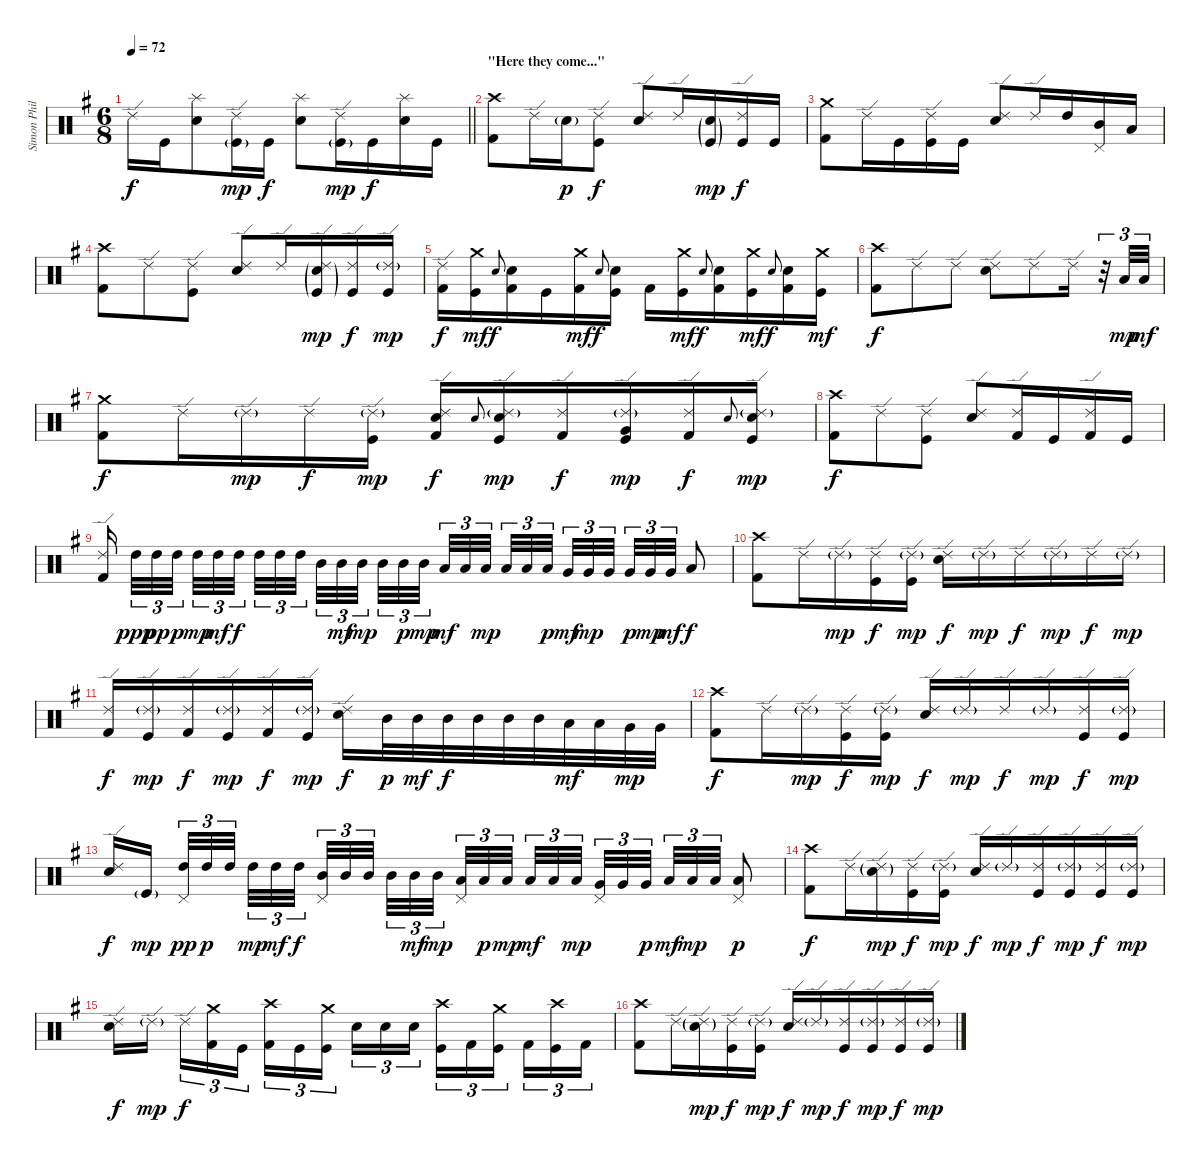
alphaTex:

\track ("Simon Phillips" "Simon Phil") {instrument percussion}
\staff {score}
\articulation defaults
\ts (6 8)
\tempo 72
\clef neutral
\barLineRight lightlight
\ks eminor "Ride (edge) 2".16{dy f} "Kick (hit)".16
("Splash (hit)" "Electric Snare (hit)").8 ("Ride (edge) 2" "Kick (hit)"{g}).16{dy mp} "Kick (hit)".16{dy f} ("Splash (hit)" "Electric Snare (hit)").8 ("Ride (edge) 2" "Kick (hit)"{g}).16{dy mp} "Kick (hit)".16{dy f} ("Splash (hit)" "Electric Snare (hit)").16 "Kick (hit)".16 |
\section ("" "\"Here they come...\"")
("Crash high (hit)" "Kick (hit) 2").8 "Ride (edge) 2".16 "Electric Snare (hit)"{g}.16{dy p} ("Ride (edge) 2" "Kick (hit)").8{dy f} ("Ride (edge) 2" "Electric Snare (hit)").8 "Ride (edge) 2".16 ("Electric Snare (hit)"{g} "Kick (hit)"{g}).16{dy mp} ("Ride (edge) 2" "Kick (hit)").16{dy f} "Kick (hit)".16 |
("Crash medium (hit)" "Kick (hit) 2").8 "Ride (edge) 2".16 "Kick (hit)".16 ("Ride (edge) 2" "Kick (hit)").16 "Kick (hit)".16 ("Ride (edge) 2" "Electric Snare (hit)").8 "Ride (edge) 2".16 "High Tom (hit)".16 ("Pedal Hi-Hat (hit)" "Mid Tom (hit)").16 "Low Tom (hit)".16 |
("Crash high (hit)" "Kick (hit) 2").8 "Ride (edge) 2".8 ("Ride (edge) 2" "Kick (hit)").8 ("Ride (edge) 2" "Electric Snare (hit)").8 "Ride (edge) 2".16 ("Ride (edge) 2"{g} "Electric Snare (hit)"{g} "Kick (hit)"{g}).16{dy mp} ("Ride (edge) 2" "Kick (hit)").16{dy f} ("Ride (edge) 2"{g} "Kick (hit)").16{dy mp} |
("Ride (edge) 2" "Kick (hit) 2").16{dy f} ("Crash medium (hit)" "Kick (hit)").16{dy mf} "Electric Snare (hit)".8{gr onbeat dy f} ("Electric Snare (hit)" "Kick (hit) 2").16 "Kick (hit)".16 ("Crash medium (hit)" "Kick (hit) 2").16{dy mf} "Electric Snare (hit)".8{gr onbeat dy f} ("Electric Snare (hit)" "Kick (hit)").16 "Kick (hit) 2".16 ("Crash medium (hit)" "Kick (hit)").16{dy mf} "Electric Snare (hit)".8{gr onbeat dy f} ("Electric Snare (hit)" "Kick (hit) 2").16 ("Crash medium (hit)" "Kick (hit)").16{dy mf} "Electric Snare (hit)".8{gr onbeat dy f} ("Electric Snare (hit)" "Kick (hit) 2").16 ("Crash medium (hit)" "Kick (hit)").16{dy mf} |
("Crash high (hit)" "Kick (hit) 2").8{dy f} "Ride (edge) 2".8 "Ride (edge) 2".8 ("Ride (edge) 2" "Electric Snare (hit)").8 "Ride (edge) 2".8 "Ride (edge) 2".16 r.32{tu (3 2)} "Low Tom (hit)".32{tu (3 2) dy mp} "Low Tom (hit)".32{tu (3 2) dy mf} |
("Crash medium (hit)" "Kick (hit) 2").8{dy f} "Ride (edge) 2".16 "Ride (edge) 2"{g}.16{dy mp} "Ride (edge) 2".16{dy f} ("Ride (edge) 2"{g} "Kick (hit)").16{dy mp} ("Ride (edge) 2" "Electric Snare (hit)" "Kick (hit) 2").16{dy f} "Electric Snare (hit)".8{gr onbeat} ("Ride (edge) 2"{g} "Electric Snare (hit)" "Kick (hit)").16{dy mp} ("Ride (edge) 2" "Kick (hit) 2").16{dy f} ("Ride (edge) 2"{g} "Very Low Tom (hit)" "Kick (hit)").16{dy mp} ("Ride (edge) 2" "Kick (hit) 2").16{dy f} "Electric Snare (hit)".8{gr onbeat} ("Ride (edge) 2"{g} "Electric Snare (hit)" "Kick (hit)").16{dy mp} |
("Crash high (hit)" "Kick (hit) 2").8{dy f} "Ride (edge) 2".8 ("Ride (edge) 2" "Kick (hit)").8 ("Ride (edge) 2" "Electric Snare (hit)").8 ("Ride (edge) 2" "Kick (hit) 2").16 "Kick (hit)".16 ("Ride (edge) 2" "Kick (hit) 2").16 "Kick (hit)".16 |
("Ride (edge) 2" "Kick (hit) 2").16{beam splitsecondary} "High Tom (hit)".32{tu (3 2) dy ppp} "High Tom (hit)".32{tu (3 2) dy pp} "High Tom (hit)".32{tu (3 2) dy p beam splitsecondary} "High Tom (hit)".32{tu (3 2) dy mp} "High Tom (hit)".32{tu (3 2) dy mf} "High Tom (hit)".32{tu (3 2) dy f beam splitsecondary} "High Tom (hit)".32{tu (3 2)} "High Tom (hit)".32{tu (3 2)} "High Tom (hit)".32{tu (3 2) beam splitsecondary} "Mid Tom (hit)".32{tu (3 2)} "Mid Tom (hit)".32{tu (3 2) dy mf} "Mid Tom (hit)".32{tu (3 2) dy mp beam splitsecondary} "Mid Tom (hit)".32{tu (3 2)} "Mid Tom (hit)".32{tu (3 2) dy p} "Mid Tom (hit)".32{tu (3 2) dy mp} "Low Tom (hit)".32{tu (3 2) dy mf} "Low Tom (hit)".32{tu (3 2)} "Low Tom (hit)".32{tu (3 2) dy mp beam splitsecondary} "Low Tom (hit)".32{tu (3 2)} "Low Tom (hit)".32{tu (3 2)} "Low Tom (hit)".32{tu (3 2) dy p beam splitsecondary} "Very Low Tom (hit)".32{tu (3 2) dy mf} "Very Low Tom (hit)".32{tu (3 2) dy mp} "Very Low Tom (hit)".32{tu (3 2) beam splitsecondary} "Very Low Tom (hit)".32{tu (3 2) dy p} "Very Low Tom (hit)".32{tu (3 2) dy mp} "Very Low Tom (hit)".32{tu (3 2) dy mf} "Low Floor Tom (hit)".8{dy f} |
("Crash high (hit)" "Kick (hit) 2").8 "Ride (edge) 2".16 "Ride (edge) 2"{g}.16{dy mp} ("Ride (edge) 2" "Kick (hit)").16{dy f} ("Ride (edge) 2"{g} "Kick (hit)").16{dy mp} ("Ride (edge) 2" "Electric Snare (hit)").16{dy f} "Ride (edge) 2"{g}.16{dy mp} "Ride (edge) 2".16{dy f} "Ride (edge) 2"{g}.16{dy mp} "Ride (edge) 2".16{dy f} "Ride (edge) 2"{g}.16{dy mp} |
("Ride (edge) 2" "Kick (hit) 2").16{dy f} ("Ride (edge) 2"{g} "Kick (hit)").16{dy mp} ("Ride (edge) 2" "Kick (hit) 2").16{dy f} ("Ride (edge) 2"{g} "Kick (hit)").16{dy mp} ("Ride (edge) 2" "Kick (hit) 2").16{dy f} ("Ride (edge) 2"{g} "Kick (hit)").16{dy mp} ("Ride (edge) 2" "Electric Snare (hit)").16{dy f} "Mid Tom (hit)".32{dy p} "Mid Tom (hit)".32{dy mf} "Mid Tom (hit)".32{dy f} "Mid Tom (hit)".32 "Mid Tom (hit)".32 "Mid Tom (hit)".32 "Low Tom (hit)".32{dy mf} "Low Tom (hit)".32 "Very Low Tom (hit)".32{dy mp} "Very Low Tom (hit)".32 |
("Crash high (hit)" "Kick (hit) 2").8{dy f} "Ride (edge) 2".16 "Ride (edge) 2"{g}.16{dy mp} ("Ride (edge) 2" "Kick (hit)").16{dy f} ("Ride (edge) 2"{g} "Kick (hit)").16{dy mp} ("Ride (edge) 2" "Electric Snare (hit)").16{dy f} "Ride (edge) 2"{g}.16{dy mp} "Ride (edge) 2".16{dy f} "Ride (edge) 2"{g}.16{dy mp} ("Ride (edge) 2" "Kick (hit)").16{dy f} ("Ride (edge) 2"{g} "Kick (hit)").16{dy mp} |
("Ride (edge) 2" "Electric Snare (hit)").16{dy f} "Kick (hit)"{g}.16{dy mp beam splitsecondary} ("Pedal Hi-Hat (hit)" "High Tom (hit)").32{tu (3 2) dy pp} "High Tom (hit)".32{tu (3 2) dy p} "High Tom (hit)".32{tu (3 2) beam splitsecondary} "High Tom (hit)".32{tu (3 2) dy mp} "High Tom (hit)".32{tu (3 2) dy mf} "High Tom (hit)".32{tu (3 2) dy f beam splitsecondary} ("Pedal Hi-Hat (hit)" "Mid Tom (hit)").32{tu (3 2)} "Mid Tom (hit)".32{tu (3 2)} "Mid Tom (hit)".32{tu (3 2) beam splitsecondary} "Mid Tom (hit)".32{tu (3 2)} "Mid Tom (hit)".32{tu (3 2) dy mf} "Mid Tom (hit)".32{tu (3 2) dy mp} ("Pedal Hi-Hat (hit)" "Low Tom (hit)").32{tu (3 2)} "Low Tom (hit)".32{tu (3 2) dy p} "Low Tom (hit)".32{tu (3 2) dy mp beam splitsecondary} "Low Tom (hit)".32{tu (3 2) dy mf} "Low Tom (hit)".32{tu (3 2)} "Low Tom (hit)".32{tu (3 2) dy mp beam splitsecondary} ("Pedal Hi-Hat (hit)" "Very Low Tom (hit)").32{tu (3 2)} "Very Low Tom (hit)".32{tu (3 2)} "Very Low Tom (hit)".32{tu (3 2) dy p beam splitsecondary} "Low Floor Tom (hit)".32{tu (3 2) dy mf} "Low Floor Tom (hit)".32{tu (3 2) dy mp} "Low Floor Tom (hit)".32{tu (3 2)} ("Pedal Hi-Hat (hit)" "Low Floor Tom (hit)").8{dy p} |
("Crash high (hit)" "Kick (hit) 2").8{dy f} "Ride (edge) 2".16 ("Ride (edge) 2"{g} "Electric Snare (hit)"{g}).16{dy mp} ("Ride (edge) 2" "Kick (hit)").16{dy f} ("Ride (edge) 2"{g} "Kick (hit)").16{dy mp} ("Ride (edge) 2" "Electric Snare (hit)").16{dy f} "Ride (edge) 2"{g}.16{dy mp} ("Ride (edge) 2" "Kick (hit)").16{dy f} ("Ride (edge) 2"{g} "Kick (hit)").16{dy mp} ("Ride (edge) 2" "Kick (hit)").16{dy f} ("Ride (edge) 2"{g} "Kick (hit)").16{dy mp} |
("Ride (edge) 2" "Electric Snare (hit)").16{dy f} "Ride (edge) 2"{g}.16{dy mp beam splitsecondary} "Ride (edge) 2".16{tu (3 2) dy f} ("Crash medium (hit)" "Kick (hit) 2").16{tu (3 2)} "Kick (hit)".16{tu (3 2) beam splitsecondary} ("Crash high (hit)" "Kick (hit) 2").16{tu (3 2)} "Kick (hit)".16{tu (3 2)} ("Crash medium (hit)" "Kick (hit)").16{tu (3 2)} "Electric Snare (hit)".16{tu (3 2)} "Electric Snare (hit)".16{tu (3 2)} "Electric Snare (hit)".16{tu (3 2) beam splitsecondary} ("Crash high (hit)" "Kick (hit)").16{tu (3 2)} "Kick (hit) 2".16{tu (3 2)} ("Crash medium (hit)" "Kick (hit)").16{tu (3 2) beam splitsecondary} "Kick (hit) 2".16{tu (3 2)} ("Crash high (hit)" "Kick (hit)").16{tu (3 2)} "Kick (hit) 2".16{tu (3 2)} |
("Crash high (hit)" "Kick (hit) 2").8 "Ride (edge) 2".16 ("Ride (edge) 2"{g} "Electric Snare (hit)"{g}).16{dy mp} ("Ride (edge) 2" "Kick (hit)").16{dy f} ("Ride (edge) 2"{g} "Kick (hit)").16{dy mp} ("Ride (edge) 2" "Electric Snare (hit)").16{dy f} "Ride (edge) 2"{g}.16{dy mp} ("Ride (edge) 2" "Kick (hit)").16{dy f} ("Ride (edge) 2"{g} "Kick (hit)").16{dy mp} ("Ride (edge) 2" "Kick (hit)").16{dy f} ("Ride (edge) 2"{g} "Kick (hit)").16{dy mp}
